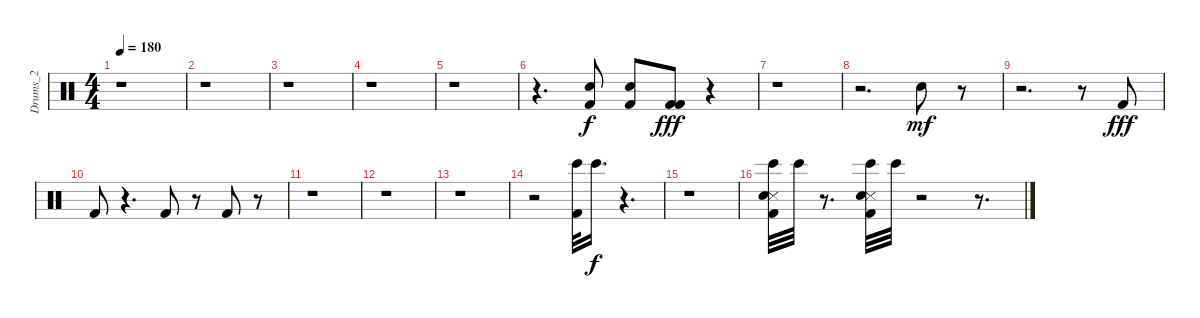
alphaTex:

\track ("Drums_2" "Drums_2") {instrument percussion}
\staff {score}
\articulation defaults
\ts (4 4)
\tempo 180
\clef neutral
\ks c
r.1{dy f} |
r.1 |
r.1 |
r.1 |
r.1 |
r.4{d} ("Snare (hit) 2" "Kick (hit) 2").8 ("Snare (hit) 2" "Kick (hit) 2").8 ("Kick (hit) 2" "Kick (hit) 2").8{dy fff} r.4 |
r.1 |
r.2{d} "Snare (hit) 2".8{dy mf} r.8 |
r.2{d} r.8 "Kick (hit) 2".8{dy fff} |
"Kick (hit) 2".8 r.4{d} "Kick (hit) 2".8 r.8 "Kick (hit) 2".8 r.8 |
r.1 |
r.1 |
r.1 |
r.2 ("Bongo High (hit)" "Kick (hit) 2").32 "Bongo High (hit)".16{d dy f} r.4{d} |
r.1 |
("Bongo High (hit)" "Kick (hit) 2" "Snare (side stick) 3" "Electric Snare (hit)").32 "Bongo High (hit)".32 r.8{d} ("Bongo High (hit)" "Kick (hit) 2" "Snare (side stick) 3" "Electric Snare (hit)").32 "Bongo High (hit)".32 r.2 r.8{d}
